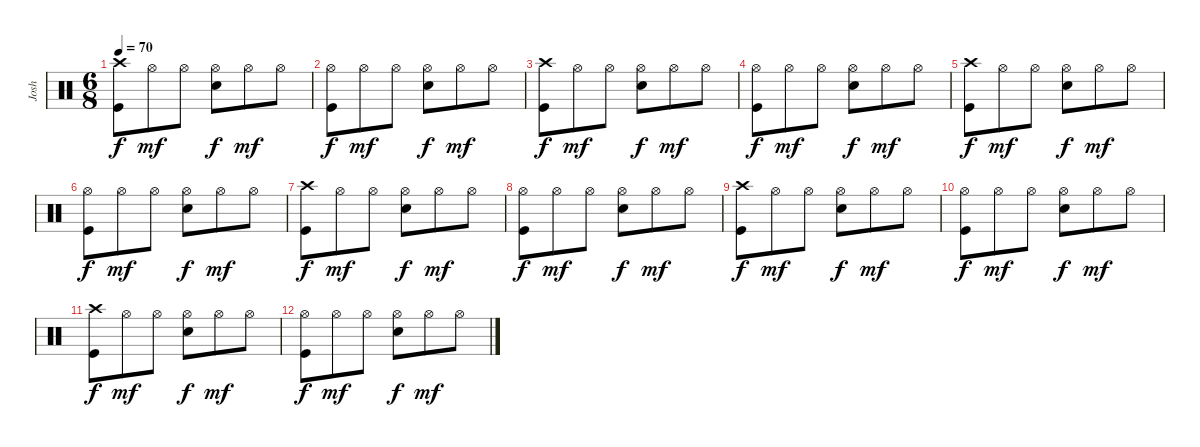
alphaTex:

\track ("Josh" "Josh") {instrument percussion}
\staff {score}
\articulation defaults
\ts (6 8)
\tempo 70
\clef neutral
\ks c
("Crash high (hit)" "Kick (hit)").8{dy f} "Hi-Hat (open)".8{dy mf} "Hi-Hat (open)".8 ("Hi-Hat (open)" "Snare (hit) 2").8{dy f} "Hi-Hat (open)".8{dy mf} "Hi-Hat (open)".8 |
("Hi-Hat (open)" "Kick (hit)").8{dy f} "Hi-Hat (open)".8{dy mf} "Hi-Hat (open)".8 ("Hi-Hat (open)" "Snare (hit) 2").8{dy f} "Hi-Hat (open)".8{dy mf} "Hi-Hat (open)".8 |
("Crash high (hit)" "Kick (hit)").8{dy f} "Hi-Hat (open)".8{dy mf} "Hi-Hat (open)".8 ("Hi-Hat (open)" "Snare (hit) 2").8{dy f} "Hi-Hat (open)".8{dy mf} "Hi-Hat (open)".8 |
("Hi-Hat (open)" "Kick (hit)").8{dy f} "Hi-Hat (open)".8{dy mf} "Hi-Hat (open)".8 ("Hi-Hat (open)" "Snare (hit) 2").8{dy f} "Hi-Hat (open)".8{dy mf} "Hi-Hat (open)".8 |
("Crash high (hit)" "Kick (hit)").8{dy f} "Hi-Hat (open)".8{dy mf} "Hi-Hat (open)".8 ("Hi-Hat (open)" "Snare (hit) 2").8{dy f} "Hi-Hat (open)".8{dy mf} "Hi-Hat (open)".8 |
("Hi-Hat (open)" "Kick (hit)").8{dy f} "Hi-Hat (open)".8{dy mf} "Hi-Hat (open)".8 ("Hi-Hat (open)" "Snare (hit) 2").8{dy f} "Hi-Hat (open)".8{dy mf} "Hi-Hat (open)".8 |
("Crash high (hit)" "Kick (hit)").8{dy f} "Hi-Hat (open)".8{dy mf} "Hi-Hat (open)".8 ("Hi-Hat (open)" "Snare (hit) 2").8{dy f} "Hi-Hat (open)".8{dy mf} "Hi-Hat (open)".8 |
("Hi-Hat (open)" "Kick (hit)").8{dy f} "Hi-Hat (open)".8{dy mf} "Hi-Hat (open)".8 ("Hi-Hat (open)" "Snare (hit) 2").8{dy f} "Hi-Hat (open)".8{dy mf} "Hi-Hat (open)".8 |
("Crash high (hit)" "Kick (hit)").8{dy f} "Hi-Hat (open)".8{dy mf} "Hi-Hat (open)".8 ("Hi-Hat (open)" "Snare (hit) 2").8{dy f} "Hi-Hat (open)".8{dy mf} "Hi-Hat (open)".8 |
("Hi-Hat (open)" "Kick (hit)").8{dy f} "Hi-Hat (open)".8{dy mf} "Hi-Hat (open)".8 ("Hi-Hat (open)" "Snare (hit) 2").8{dy f} "Hi-Hat (open)".8{dy mf} "Hi-Hat (open)".8 |
("Crash high (hit)" "Kick (hit)").8{dy f} "Hi-Hat (open)".8{dy mf} "Hi-Hat (open)".8 ("Hi-Hat (open)" "Snare (hit) 2").8{dy f} "Hi-Hat (open)".8{dy mf} "Hi-Hat (open)".8 |
("Hi-Hat (open)" "Kick (hit)").8{dy f} "Hi-Hat (open)".8{dy mf} "Hi-Hat (open)".8 ("Hi-Hat (open)" "Snare (hit) 2").8{dy f} "Hi-Hat (open)".8{dy mf} "Hi-Hat (open)".8
